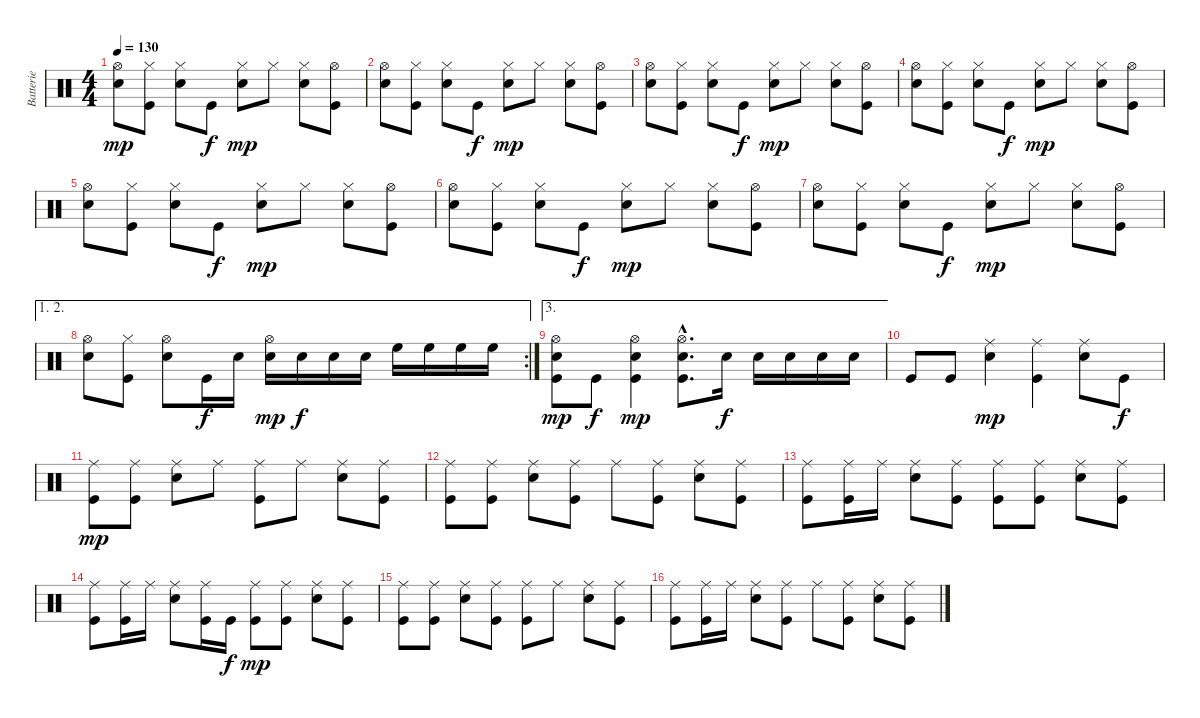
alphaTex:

\track ("Batterie" "Batterie") {instrument percussion}
\staff {score}
\articulation defaults
\ts (4 4)
\tempo 130
\clef neutral
\ks c
("Hi-Hat (open)" "Snare (hit) 2").8{dy mp} ("Hi-Hat (closed)" "Kick (hit)").8 ("Hi-Hat (closed)" "Snare (hit) 2").8 "Kick (hit)".8{dy f} ("Hi-Hat (closed)" "Snare (hit) 2").8{dy mp} "Hi-Hat (closed)".8 ("Hi-Hat (closed)" "Snare (hit) 2").8 ("Hi-Hat (open)" "Kick (hit)").8 |
("Hi-Hat (open)" "Snare (hit) 2").8 ("Hi-Hat (closed)" "Kick (hit)").8 ("Hi-Hat (closed)" "Snare (hit) 2").8 "Kick (hit)".8{dy f} ("Hi-Hat (closed)" "Snare (hit) 2").8{dy mp} "Hi-Hat (closed)".8 ("Hi-Hat (closed)" "Snare (hit) 2").8 ("Hi-Hat (open)" "Kick (hit)").8 |
("Hi-Hat (open)" "Snare (hit) 2").8 ("Hi-Hat (closed)" "Kick (hit)").8 ("Hi-Hat (closed)" "Snare (hit) 2").8 "Kick (hit)".8{dy f} ("Hi-Hat (closed)" "Snare (hit) 2").8{dy mp} "Hi-Hat (closed)".8 ("Hi-Hat (closed)" "Snare (hit) 2").8 ("Hi-Hat (open)" "Kick (hit)").8 |
("Hi-Hat (open)" "Snare (hit) 2").8 ("Hi-Hat (closed)" "Kick (hit)").8 ("Hi-Hat (closed)" "Snare (hit) 2").8 "Kick (hit)".8{dy f} ("Hi-Hat (closed)" "Snare (hit) 2").8{dy mp} "Hi-Hat (closed)".8 ("Hi-Hat (closed)" "Snare (hit) 2").8 ("Hi-Hat (open)" "Kick (hit)").8 |
("Hi-Hat (open)" "Snare (hit) 2").8 ("Hi-Hat (closed)" "Kick (hit)").8 ("Hi-Hat (closed)" "Snare (hit) 2").8 "Kick (hit)".8{dy f} ("Hi-Hat (closed)" "Snare (hit) 2").8{dy mp} "Hi-Hat (closed)".8 ("Hi-Hat (closed)" "Snare (hit) 2").8 ("Hi-Hat (open)" "Kick (hit)").8 |
("Hi-Hat (open)" "Snare (hit) 2").8 ("Hi-Hat (closed)" "Kick (hit)").8 ("Hi-Hat (closed)" "Snare (hit) 2").8 "Kick (hit)".8{dy f} ("Hi-Hat (closed)" "Snare (hit) 2").8{dy mp} "Hi-Hat (closed)".8 ("Hi-Hat (closed)" "Snare (hit) 2").8 ("Hi-Hat (open)" "Kick (hit)").8 |
("Hi-Hat (open)" "Snare (hit) 2").8 ("Hi-Hat (closed)" "Kick (hit)").8 ("Hi-Hat (closed)" "Snare (hit) 2").8 "Kick (hit)".8{dy f} ("Hi-Hat (closed)" "Snare (hit) 2").8{dy mp} "Hi-Hat (closed)".8 ("Hi-Hat (closed)" "Snare (hit) 2").8 ("Hi-Hat (open)" "Kick (hit)").8 |
\ae (1 2)
\rc 2
("Hi-Hat (open)" "Snare (hit) 2").8 ("Hi-Hat (closed)" "Kick (hit)").8 ("Hi-Hat (open)" "Snare (hit) 2").8 "Kick (hit)".16{dy f} "Snare (hit) 2".16 ("Hi-Hat (open)" "Snare (hit) 2").16{dy mp} "Snare (hit) 2".16{dy f} "Snare (hit) 2".16 "Snare (hit) 2".16 "High Floor Tom (hit)".16 "High Floor Tom (hit)".16 "High Floor Tom (hit)".16 "High Floor Tom (hit)".16 |
\ae 3
("Hi-Hat (open)" "Snare (hit) 2" "Kick (hit)").8{dy mp} "Kick (hit)".8{dy f} ("Hi-Hat (open)" "Snare (hit) 2" "Kick (hit)").4{dy mp} ("Hi-Hat (open)"{hac} "Snare (hit) 2"{hac} "Kick (hit)"{hac}).8{d} "Snare (hit) 2".16{dy f} "Snare (hit) 2".16 "Snare (hit) 2".16 "Snare (hit) 2".16 "Snare (hit) 2".16 |
"Kick (hit)".8 "Kick (hit)".8 ("Ride (middle)" "Snare (hit) 2").4{dy mp} ("Ride (middle)" "Kick (hit)").4 ("Ride (middle)" "Snare (hit) 2").8 "Kick (hit)".8{dy f} |
("Ride (middle)" "Kick (hit)").8{dy mp} ("Ride (middle)" "Kick (hit)").8 ("Ride (middle)" "Snare (hit) 2").8 "Ride (middle)".8 ("Ride (middle)" "Kick (hit)").8 "Ride (middle)".8 ("Ride (middle)" "Snare (hit) 2").8 ("Ride (middle)" "Kick (hit)").8 |
("Ride (middle)" "Kick (hit)").8 ("Ride (middle)" "Kick (hit)").8 ("Ride (middle)" "Snare (hit) 2").8 ("Ride (middle)" "Kick (hit)").8 "Ride (middle)".8 ("Ride (middle)" "Kick (hit)").8 ("Ride (middle)" "Snare (hit) 2").8 ("Ride (middle)" "Kick (hit)").8 |
("Ride (middle)" "Kick (hit)").8 ("Ride (middle)" "Kick (hit)").16 "Ride (middle)".16 ("Ride (middle)" "Snare (hit) 2").8 ("Ride (middle)" "Kick (hit)").8 ("Ride (middle)" "Kick (hit)").8 ("Ride (middle)" "Kick (hit)").8 ("Ride (middle)" "Snare (hit) 2").8 ("Ride (middle)" "Kick (hit)").8 |
("Ride (middle)" "Kick (hit)").8 ("Ride (middle)" "Kick (hit)").16 "Ride (middle)".16 ("Ride (middle)" "Snare (hit) 2").8 ("Ride (middle)" "Kick (hit)").16 "Kick (hit)".16{dy f} ("Ride (middle)" "Kick (hit)").8{dy mp} ("Ride (middle)" "Kick (hit)").8 ("Ride (middle)" "Snare (hit) 2").8 ("Ride (middle)" "Kick (hit)").8 |
("Ride (middle)" "Kick (hit)").8 ("Ride (middle)" "Kick (hit)").8 ("Ride (middle)" "Snare (hit) 2").8 ("Ride (middle)" "Kick (hit)").8 ("Ride (middle)" "Kick (hit)").8 "Ride (middle)".8 ("Ride (middle)" "Snare (hit) 2").8 ("Ride (middle)" "Kick (hit)").8 |
("Ride (middle)" "Kick (hit)").8 ("Ride (middle)" "Kick (hit)").16 "Ride (middle)".16 ("Ride (middle)" "Snare (hit) 2").8 ("Ride (middle)" "Kick (hit)").8 "Ride (middle)".8 ("Ride (middle)" "Kick (hit)").8 ("Ride (middle)" "Snare (hit) 2").8 ("Ride (middle)" "Kick (hit)").8
